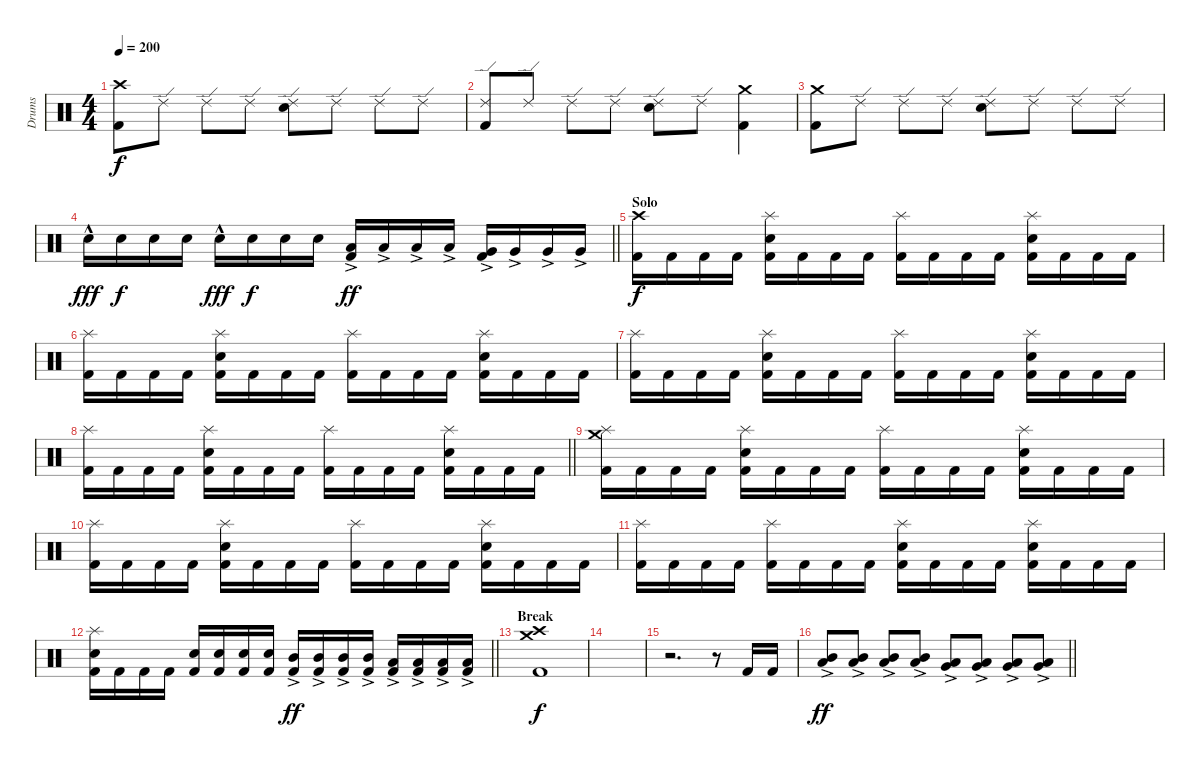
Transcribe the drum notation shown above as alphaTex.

\track ("Drums" "Drums") {instrument percussion}
\staff {score}
\articulation defaults
\ts (4 4)
\section ("" "")
\tempo 200
\clef neutral
\ks c
("Kick (hit) 2" "Crash high (hit)").8{dy f} "Ride (edge) 2".8 "Ride (edge) 2".8 "Ride (edge) 2".8 ("Snare (hit) 2" "Ride (edge) 2").8 "Ride (edge) 2".8 "Ride (edge) 2".8 "Ride (edge) 2".8 |
("Kick (hit) 2" "Ride (edge) 2").8 "Ride (edge) 2".8 "Ride (edge) 2".8 "Ride (edge) 2".8 ("Snare (hit) 2" "Ride (edge) 2").8 "Ride (edge) 2".8 ("Kick (hit) 2" "Crash medium (hit)").4 |
("Kick (hit) 2" "Crash medium (hit)").8 "Ride (edge) 2".8 "Ride (edge) 2".8 "Ride (edge) 2".8 ("Snare (hit) 2" "Ride (edge) 2").8 "Ride (edge) 2".8 "Ride (edge) 2".8 "Ride (edge) 2".8 |
\barLineRight lightlight "Snare (hit) 2"{hac}.16{dy fff} "Snare (hit) 2".16{dy f} "Snare (hit) 2".16 "Snare (hit) 2".16 "Snare (hit) 2"{hac}.16{dy fff} "Snare (hit) 2".16{dy f} "Snare (hit) 2".16 "Snare (hit) 2".16
("Kick (hit) 2" "Low Tom (hit)"{ac}).16{dy ff} "Low Tom (hit)"{ac}.16 "Low Tom (hit)"{ac}.16 "Low Tom (hit)"{ac}.16 ("Kick (hit) 2" "Very Low Tom (hit)"{ac}).16 "Very Low Tom (hit)"{ac}.16 "Very Low Tom (hit)"{ac}.16 "Very Low Tom (hit)"{ac}.16 |
\section ("" "Solo")
("Kick (hit) 2" "Crash high (hit)").16{dy f} "Kick (hit) 2".16 "Kick (hit) 2".16 "Kick (hit) 2".16 ("Kick (hit) 2" "Snare (hit) 2" "Splash (hit)").16 "Kick (hit) 2".16 "Kick (hit) 2".16 "Kick (hit) 2".16 ("Kick (hit) 2" "Splash (hit)").16 "Kick (hit) 2".16 "Kick (hit) 2".16 "Kick (hit) 2".16 ("Kick (hit) 2" "Snare (hit) 2" "Splash (hit)").16 "Kick (hit) 2".16 "Kick (hit) 2".16 "Kick (hit) 2".16 |
("Kick (hit) 2" "Splash (hit)").16 "Kick (hit) 2".16 "Kick (hit) 2".16 "Kick (hit) 2".16 ("Kick (hit) 2" "Snare (hit) 2" "Splash (hit)").16 "Kick (hit) 2".16 "Kick (hit) 2".16 "Kick (hit) 2".16 ("Kick (hit) 2" "Splash (hit)").16 "Kick (hit) 2".16 "Kick (hit) 2".16 "Kick (hit) 2".16 ("Kick (hit) 2" "Snare (hit) 2" "Splash (hit)").16 "Kick (hit) 2".16 "Kick (hit) 2".16 "Kick (hit) 2".16 |
("Kick (hit) 2" "Splash (hit)").16 "Kick (hit) 2".16 "Kick (hit) 2".16 "Kick (hit) 2".16 ("Kick (hit) 2" "Snare (hit) 2" "Splash (hit)").16 "Kick (hit) 2".16 "Kick (hit) 2".16 "Kick (hit) 2".16 ("Kick (hit) 2" "Splash (hit)").16 "Kick (hit) 2".16 "Kick (hit) 2".16 "Kick (hit) 2".16 ("Kick (hit) 2" "Snare (hit) 2" "Splash (hit)").16 "Kick (hit) 2".16 "Kick (hit) 2".16 "Kick (hit) 2".16 |
\barLineRight lightlight
("Kick (hit) 2" "Splash (hit)").16 "Kick (hit) 2".16 "Kick (hit) 2".16 "Kick (hit) 2".16 ("Kick (hit) 2" "Snare (hit) 2" "Splash (hit)").16 "Kick (hit) 2".16 "Kick (hit) 2".16 "Kick (hit) 2".16 ("Kick (hit) 2" "Splash (hit)").16 "Kick (hit) 2".16 "Kick (hit) 2".16 "Kick (hit) 2".16 ("Kick (hit) 2" "Snare (hit) 2" "Splash (hit)").16 "Kick (hit) 2".16 "Kick (hit) 2".16 "Kick (hit) 2".16 |
\section ("" "")
("Kick (hit) 2" "Splash (hit)" "Crash medium (hit)").16 "Kick (hit) 2".16 "Kick (hit) 2".16 "Kick (hit) 2".16 ("Kick (hit) 2" "Snare (hit) 2" "Splash (hit)").16 "Kick (hit) 2".16 "Kick (hit) 2".16 "Kick (hit) 2".16 ("Kick (hit) 2" "Splash (hit)").16 "Kick (hit) 2".16 "Kick (hit) 2".16 "Kick (hit) 2".16 ("Kick (hit) 2" "Snare (hit) 2" "Splash (hit)").16 "Kick (hit) 2".16 "Kick (hit) 2".16 "Kick (hit) 2".16 |
("Kick (hit) 2" "Splash (hit)").16 "Kick (hit) 2".16 "Kick (hit) 2".16 "Kick (hit) 2".16 ("Kick (hit) 2" "Snare (hit) 2" "Splash (hit)").16 "Kick (hit) 2".16 "Kick (hit) 2".16 "Kick (hit) 2".16 ("Kick (hit) 2" "Splash (hit)").16 "Kick (hit) 2".16 "Kick (hit) 2".16 "Kick (hit) 2".16 ("Kick (hit) 2" "Snare (hit) 2" "Splash (hit)").16 "Kick (hit) 2".16 "Kick (hit) 2".16 "Kick (hit) 2".16 |
("Kick (hit) 2" "Splash (hit)").16 "Kick (hit) 2".16 "Kick (hit) 2".16 "Kick (hit) 2".16 ("Kick (hit) 2" "Splash (hit)").16 "Kick (hit) 2".16 "Kick (hit) 2".16 "Kick (hit) 2".16 ("Kick (hit) 2" "Snare (hit) 2" "Splash (hit)").16 "Kick (hit) 2".16 "Kick (hit) 2".16 "Kick (hit) 2".16 ("Kick (hit) 2" "Snare (hit) 2" "Splash (hit)").16 "Kick (hit) 2".16 "Kick (hit) 2".16 "Kick (hit) 2".16 |
\barLineRight lightlight
("Kick (hit) 2" "Snare (hit) 2" "Splash (hit)").16 "Kick (hit) 2".16 "Kick (hit) 2".16 "Kick (hit) 2".16 ("Kick (hit) 2" "Snare (hit) 2").16 ("Kick (hit) 2" "Snare (hit) 2").16 ("Kick (hit) 2" "Snare (hit) 2").16 ("Kick (hit) 2" "Snare (hit) 2").16 ("Kick (hit) 2" "Mid Tom (hit)"{ac}).16{dy ff} ("Kick (hit) 2" "Mid Tom (hit)"{ac}).16 ("Kick (hit) 2" "Mid Tom (hit)"{ac}).16 ("Kick (hit) 2" "Mid Tom (hit)"{ac}).16 ("Kick (hit) 2" "Low Tom (hit)"{ac}).16 ("Kick (hit) 2" "Low Tom (hit)"{ac}).16 ("Kick (hit) 2" "Low Tom (hit)"{ac}).16 ("Kick (hit) 2" "Low Tom (hit)"{ac}).16 |
\section ("" "Break")
("Kick (hit) 2" "Crash medium (hit)" "Crash high (hit)").1{dy f} |
|
r.2{d} r.8 "Kick (hit) 2".16 "Kick (hit) 2".16 |
\barLineRight lightlight
("Mid Tom (hit)" "Low Tom (hit)"{ac}).8{dy ff} ("Mid Tom (hit)" "Low Tom (hit)"{ac}).8 ("Mid Tom (hit)" "Low Tom (hit)"{ac}).8 ("Mid Tom (hit)" "Low Tom (hit)"{ac}).8 ("Low Tom (hit)" "Very Low Tom (hit)"{ac}).8 ("Low Tom (hit)" "Very Low Tom (hit)"{ac}).8 ("Low Tom (hit)" "Very Low Tom (hit)"{ac}).8 ("Low Tom (hit)" "Very Low Tom (hit)"{ac}).8
